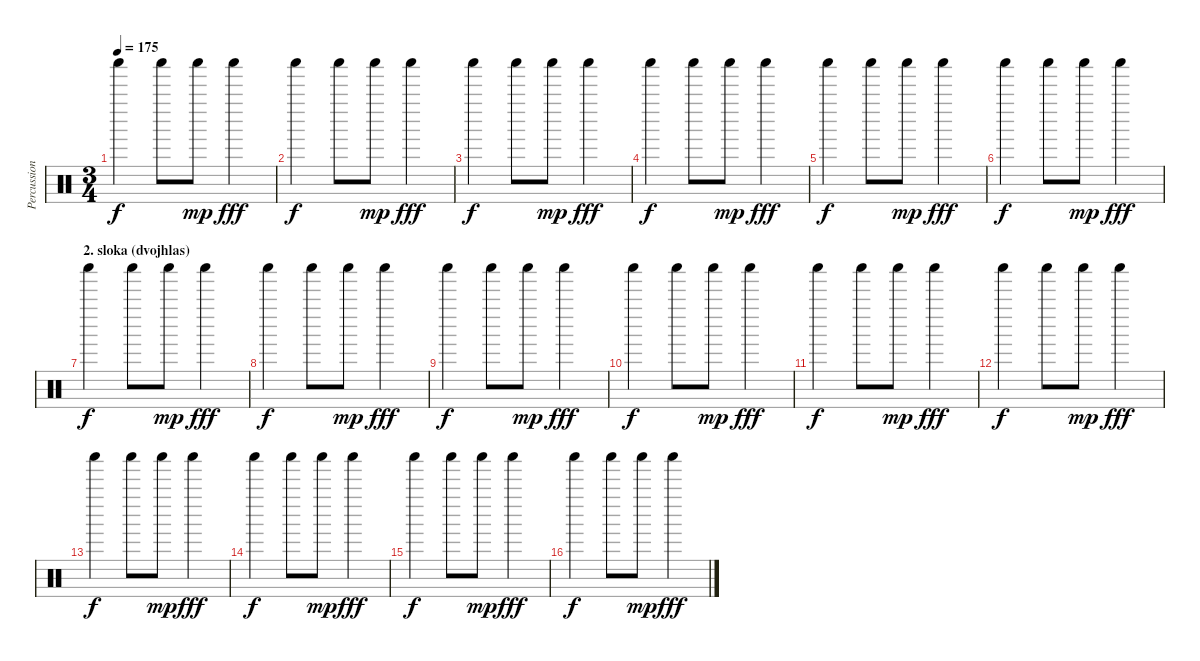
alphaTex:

\track ("Percussion" "Percussion") {instrument percussion}
\staff {score}
\articulation defaults
\ts (3 4)
\tempo 175
\clef neutral
\ks c "Shaker (hit)".4{dy f} "Shaker (hit)".8 "Shaker (hit)".8{dy mp} "Shaker (hit)".4{dy fff}
|
"Shaker (hit)".4{dy f} "Shaker (hit)".8 "Shaker (hit)".8{dy mp} "Shaker (hit)".4{dy fff} |
"Shaker (hit)".4{dy f} "Shaker (hit)".8 "Shaker (hit)".8{dy mp} "Shaker (hit)".4{dy fff} |
"Shaker (hit)".4{dy f} "Shaker (hit)".8 "Shaker (hit)".8{dy mp} "Shaker (hit)".4{dy fff} |
"Shaker (hit)".4{dy f} "Shaker (hit)".8 "Shaker (hit)".8{dy mp} "Shaker (hit)".4{dy fff} |
"Shaker (hit)".4{dy f} "Shaker (hit)".8 "Shaker (hit)".8{dy mp} "Shaker (hit)".4{dy fff} |
\section ("" "2. sloka (dvojhlas)")
"Shaker (hit)".4{dy f} "Shaker (hit)".8 "Shaker (hit)".8{dy mp} "Shaker (hit)".4{dy fff} |
"Shaker (hit)".4{dy f} "Shaker (hit)".8 "Shaker (hit)".8{dy mp} "Shaker (hit)".4{dy fff} |
"Shaker (hit)".4{dy f} "Shaker (hit)".8 "Shaker (hit)".8{dy mp} "Shaker (hit)".4{dy fff} |
"Shaker (hit)".4{dy f} "Shaker (hit)".8 "Shaker (hit)".8{dy mp} "Shaker (hit)".4{dy fff} |
"Shaker (hit)".4{dy f} "Shaker (hit)".8 "Shaker (hit)".8{dy mp} "Shaker (hit)".4{dy fff} |
"Shaker (hit)".4{dy f} "Shaker (hit)".8 "Shaker (hit)".8{dy mp} "Shaker (hit)".4{dy fff} |
"Shaker (hit)".4{dy f} "Shaker (hit)".8 "Shaker (hit)".8{dy mp} "Shaker (hit)".4{dy fff} |
"Shaker (hit)".4{dy f} "Shaker (hit)".8 "Shaker (hit)".8{dy mp} "Shaker (hit)".4{dy fff} |
"Shaker (hit)".4{dy f} "Shaker (hit)".8 "Shaker (hit)".8{dy mp} "Shaker (hit)".4{dy fff} |
"Shaker (hit)".4{dy f} "Shaker (hit)".8 "Shaker (hit)".8{dy mp} "Shaker (hit)".4{dy fff}
